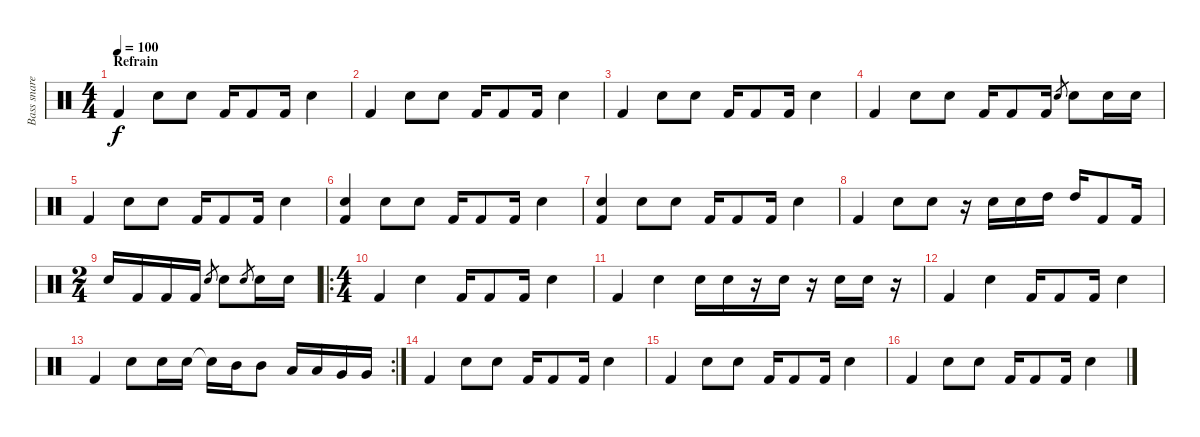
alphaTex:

\track ("Bass snare tom" "Bass snare") {instrument percussion}
\staff {score}
\articulation defaults
\ts (4 4)
\section ("" "Refrain")
\tempo 100
\clef neutral
\ks c "Kick (hit) 2".4{dy f} "Electric Snare (hit)".8 "Electric Snare (hit)".8 "Kick (hit) 2".16 "Kick (hit) 2".8 "Kick (hit) 2".16 "Electric Snare (hit)".4
|
"Kick (hit) 2".4 "Electric Snare (hit)".8 "Electric Snare (hit)".8 "Kick (hit) 2".16 "Kick (hit) 2".8 "Kick (hit) 2".16 "Electric Snare (hit)".4 |
"Kick (hit) 2".4 "Electric Snare (hit)".8 "Electric Snare (hit)".8 "Kick (hit) 2".16 "Kick (hit) 2".8 "Kick (hit) 2".16 "Electric Snare (hit)".4 |
"Kick (hit) 2".4 "Electric Snare (hit)".8 "Electric Snare (hit)".8 "Kick (hit) 2".16 "Kick (hit) 2".8 "Kick (hit) 2".16 "Electric Snare (hit)".8{gr} "Electric Snare (hit)".8 "Electric Snare (hit)".16 "Electric Snare (hit)".16 |
"Kick (hit) 2".4 "Electric Snare (hit)".8 "Electric Snare (hit)".8 "Kick (hit) 2".16 "Kick (hit) 2".8 "Kick (hit) 2".16 "Electric Snare (hit)".4 |
("Electric Snare (hit)" "Kick (hit) 2").4 "Electric Snare (hit)".8 "Electric Snare (hit)".8 "Kick (hit) 2".16 "Kick (hit) 2".8 "Kick (hit) 2".16 "Electric Snare (hit)".4 |
("Electric Snare (hit)" "Kick (hit) 2").4 "Electric Snare (hit)".8 "Electric Snare (hit)".8 "Kick (hit) 2".16 "Kick (hit) 2".8 "Kick (hit) 2".16 "Electric Snare (hit)".4 |
"Kick (hit) 2".4 "Electric Snare (hit)".8 "Electric Snare (hit)".8 r.16 "Electric Snare (hit)".16 "Electric Snare (hit)".16 "High Tom (hit)".16 "High Tom (hit)".16 "Kick (hit) 2".8 "Kick (hit) 2".16 |
\ts (2 4)
"Electric Snare (hit)".16 "Kick (hit) 2".16 "Kick (hit) 2".16 "Kick (hit) 2".16 "Electric Snare (hit)".8{gr} "Electric Snare (hit)".8 "Electric Snare (hit)".8{gr} "Electric Snare (hit)".16 "Electric Snare (hit)".16 |
\ro
\ts (4 4)
"Kick (hit) 2".4 "Electric Snare (hit)".4 "Kick (hit) 2".16 "Kick (hit) 2".8 "Kick (hit) 2".16 "Electric Snare (hit)".4 |
"Kick (hit) 2".4 "Electric Snare (hit)".4 "Electric Snare (hit)".16 "Electric Snare (hit)".16 r.16 "Electric Snare (hit)".16 r.16 "Electric Snare (hit)".16 "Electric Snare (hit)".16 r.16 |
"Kick (hit) 2".4 "Electric Snare (hit)".4 "Kick (hit) 2".16 "Kick (hit) 2".8 "Kick (hit) 2".16 "Electric Snare (hit)".4 |
\rc 2 "Kick (hit) 2".4 "Electric Snare (hit)".8 "Electric Snare (hit)".16 "Electric Snare (hit)".16 "Snare (hit)"{t}.16 "Mid Tom (hit)".16 "Mid Tom (hit)".8 "Low Tom (hit)".16 "Low Tom (hit)".16 "Very Low Tom (hit)".16 "Very Low Tom (hit)".16
|
"Kick (hit) 2".4 "Electric Snare (hit)".8 "Electric Snare (hit)".8 "Kick (hit) 2".16 "Kick (hit) 2".8 "Kick (hit) 2".16 "Electric Snare (hit)".4 |
"Kick (hit) 2".4 "Electric Snare (hit)".8 "Electric Snare (hit)".8 "Kick (hit) 2".16 "Kick (hit) 2".8 "Kick (hit) 2".16 "Electric Snare (hit)".4 |
"Kick (hit) 2".4 "Electric Snare (hit)".8 "Electric Snare (hit)".8 "Kick (hit) 2".16 "Kick (hit) 2".8 "Kick (hit) 2".16 "Electric Snare (hit)".4
